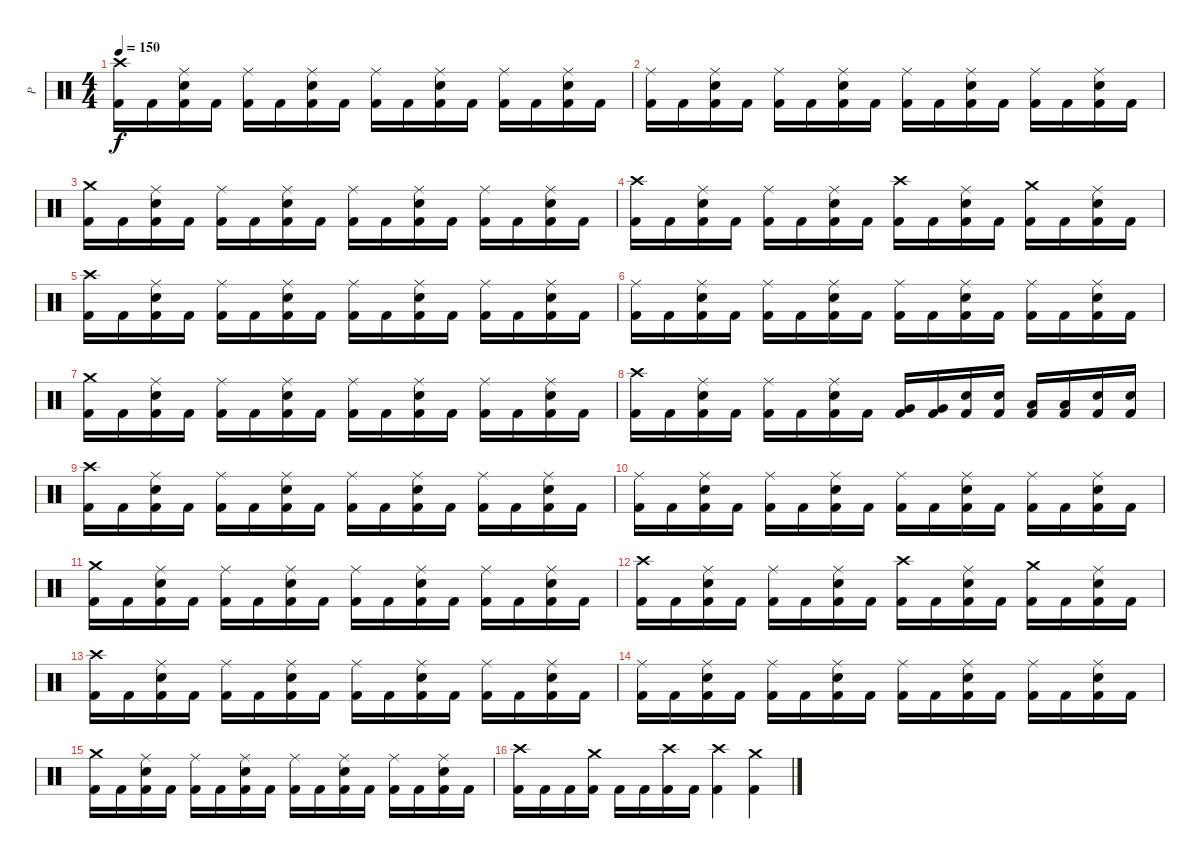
\track ("P" "P") {instrument percussion}
\staff {score}
\articulation defaults
\ts (4 4)
\tempo 150
\clef neutral
\ks c
("Crash high (hit)" "Kick (hit) 2").16{dy f} "Kick (hit) 2".16 ("Ride (middle)" "Electric Snare (hit)" "Kick (hit) 2").16 "Kick (hit) 2".16 ("Ride (middle)" "Kick (hit) 2").16 "Kick (hit) 2".16 ("Ride (middle)" "Electric Snare (hit)" "Kick (hit) 2").16 "Kick (hit) 2".16 ("Ride (middle)" "Kick (hit) 2").16 "Kick (hit) 2".16 ("Ride (middle)" "Electric Snare (hit)" "Kick (hit) 2").16 "Kick (hit) 2".16 ("Ride (middle)" "Kick (hit) 2").16 "Kick (hit) 2".16 ("Ride (middle)" "Electric Snare (hit)" "Kick (hit) 2").16 "Kick (hit) 2".16 |
("Ride (middle)" "Kick (hit) 2").16 "Kick (hit) 2".16 ("Ride (middle)" "Electric Snare (hit)" "Kick (hit) 2").16 "Kick (hit) 2".16 ("Ride (middle)" "Kick (hit) 2").16 "Kick (hit) 2".16 ("Ride (middle)" "Electric Snare (hit)" "Kick (hit) 2").16 "Kick (hit) 2".16 ("Ride (middle)" "Kick (hit) 2").16 "Kick (hit) 2".16 ("Ride (middle)" "Electric Snare (hit)" "Kick (hit) 2").16 "Kick (hit) 2".16 ("Ride (middle)" "Kick (hit) 2").16 "Kick (hit) 2".16 ("Ride (middle)" "Electric Snare (hit)" "Kick (hit) 2").16 "Kick (hit) 2".16 |
("Crash medium (hit)" "Kick (hit) 2").16 "Kick (hit) 2".16 ("Ride (middle)" "Electric Snare (hit)" "Kick (hit) 2").16 "Kick (hit) 2".16 ("Ride (middle)" "Kick (hit) 2").16 "Kick (hit) 2".16 ("Ride (middle)" "Electric Snare (hit)" "Kick (hit) 2").16 "Kick (hit) 2".16 ("Ride (middle)" "Kick (hit) 2").16 "Kick (hit) 2".16 ("Ride (middle)" "Electric Snare (hit)" "Kick (hit) 2").16 "Kick (hit) 2".16 ("Ride (middle)" "Kick (hit) 2").16 "Kick (hit) 2".16 ("Ride (middle)" "Electric Snare (hit)" "Kick (hit) 2").16 "Kick (hit) 2".16 |
("Crash high (hit)" "Kick (hit) 2").16 "Kick (hit) 2".16 ("Ride (middle)" "Electric Snare (hit)" "Kick (hit) 2").16 "Kick (hit) 2".16 ("Ride (middle)" "Kick (hit) 2").16 "Kick (hit) 2".16 ("Ride (middle)" "Electric Snare (hit)" "Kick (hit) 2").16 "Kick (hit) 2".16 ("Crash high (hit)" "Kick (hit) 2").16 "Kick (hit) 2".16 ("Ride (middle)" "Electric Snare (hit)" "Kick (hit) 2").16 "Kick (hit) 2".16 ("Crash medium (hit)" "Kick (hit) 2").16 "Kick (hit) 2".16 ("Ride (middle)" "Electric Snare (hit)" "Kick (hit) 2").16 "Kick (hit) 2".16 |
("Crash high (hit)" "Kick (hit) 2").16 "Kick (hit) 2".16 ("Ride (middle)" "Electric Snare (hit)" "Kick (hit) 2").16 "Kick (hit) 2".16 ("Ride (middle)" "Kick (hit) 2").16 "Kick (hit) 2".16 ("Ride (middle)" "Electric Snare (hit)" "Kick (hit) 2").16 "Kick (hit) 2".16 ("Ride (middle)" "Kick (hit) 2").16 "Kick (hit) 2".16 ("Ride (middle)" "Electric Snare (hit)" "Kick (hit) 2").16 "Kick (hit) 2".16 ("Ride (middle)" "Kick (hit) 2").16 "Kick (hit) 2".16 ("Ride (middle)" "Electric Snare (hit)" "Kick (hit) 2").16 "Kick (hit) 2".16 |
("Ride (middle)" "Kick (hit) 2").16 "Kick (hit) 2".16 ("Ride (middle)" "Electric Snare (hit)" "Kick (hit) 2").16 "Kick (hit) 2".16 ("Ride (middle)" "Kick (hit) 2").16 "Kick (hit) 2".16 ("Ride (middle)" "Electric Snare (hit)" "Kick (hit) 2").16 "Kick (hit) 2".16 ("Ride (middle)" "Kick (hit) 2").16 "Kick (hit) 2".16 ("Ride (middle)" "Electric Snare (hit)" "Kick (hit) 2").16 "Kick (hit) 2".16 ("Ride (middle)" "Kick (hit) 2").16 "Kick (hit) 2".16 ("Ride (middle)" "Electric Snare (hit)" "Kick (hit) 2").16 "Kick (hit) 2".16 |
("Crash medium (hit)" "Kick (hit) 2").16 "Kick (hit) 2".16 ("Ride (middle)" "Electric Snare (hit)" "Kick (hit) 2").16 "Kick (hit) 2".16 ("Ride (middle)" "Kick (hit) 2").16 "Kick (hit) 2".16 ("Ride (middle)" "Electric Snare (hit)" "Kick (hit) 2").16 "Kick (hit) 2".16 ("Ride (middle)" "Kick (hit) 2").16 "Kick (hit) 2".16 ("Ride (middle)" "Electric Snare (hit)" "Kick (hit) 2").16 "Kick (hit) 2".16 ("Ride (middle)" "Kick (hit) 2").16 "Kick (hit) 2".16 ("Ride (middle)" "Electric Snare (hit)" "Kick (hit) 2").16 "Kick (hit) 2".16 |
("Crash high (hit)" "Kick (hit) 2").16 "Kick (hit) 2".16 ("Ride (middle)" "Electric Snare (hit)" "Kick (hit) 2").16 "Kick (hit) 2".16 ("Ride (middle)" "Kick (hit) 2").16 "Kick (hit) 2".16 ("Ride (middle)" "Electric Snare (hit)" "Kick (hit) 2").16 "Kick (hit) 2".16 ("Very Low Tom (hit)" "Kick (hit) 2").16 ("Very Low Tom (hit)" "Kick (hit) 2").16 ("Electric Snare (hit)" "Kick (hit) 2").16 ("Electric Snare (hit)" "Kick (hit) 2").16 ("Low Tom (hit)" "Kick (hit) 2").16 ("Low Tom (hit)" "Kick (hit) 2").16 ("Electric Snare (hit)" "Kick (hit) 2").16 ("Electric Snare (hit)" "Kick (hit) 2").16 |
("Crash high (hit)" "Kick (hit) 2").16 "Kick (hit) 2".16 ("Ride (middle)" "Electric Snare (hit)" "Kick (hit) 2").16 "Kick (hit) 2".16 ("Ride (middle)" "Kick (hit) 2").16 "Kick (hit) 2".16 ("Ride (middle)" "Electric Snare (hit)" "Kick (hit) 2").16 "Kick (hit) 2".16 ("Ride (middle)" "Kick (hit) 2").16 "Kick (hit) 2".16 ("Ride (middle)" "Electric Snare (hit)" "Kick (hit) 2").16 "Kick (hit) 2".16 ("Ride (middle)" "Kick (hit) 2").16 "Kick (hit) 2".16 ("Ride (middle)" "Electric Snare (hit)" "Kick (hit) 2").16 "Kick (hit) 2".16 |
("Ride (middle)" "Kick (hit) 2").16 "Kick (hit) 2".16 ("Ride (middle)" "Electric Snare (hit)" "Kick (hit) 2").16 "Kick (hit) 2".16 ("Ride (middle)" "Kick (hit) 2").16 "Kick (hit) 2".16 ("Ride (middle)" "Electric Snare (hit)" "Kick (hit) 2").16 "Kick (hit) 2".16 ("Ride (middle)" "Kick (hit) 2").16 "Kick (hit) 2".16 ("Ride (middle)" "Electric Snare (hit)" "Kick (hit) 2").16 "Kick (hit) 2".16 ("Ride (middle)" "Kick (hit) 2").16 "Kick (hit) 2".16 ("Ride (middle)" "Electric Snare (hit)" "Kick (hit) 2").16 "Kick (hit) 2".16 |
("Crash medium (hit)" "Kick (hit) 2").16 "Kick (hit) 2".16 ("Ride (middle)" "Electric Snare (hit)" "Kick (hit) 2").16 "Kick (hit) 2".16 ("Ride (middle)" "Kick (hit) 2").16 "Kick (hit) 2".16 ("Ride (middle)" "Electric Snare (hit)" "Kick (hit) 2").16 "Kick (hit) 2".16 ("Ride (middle)" "Kick (hit) 2").16 "Kick (hit) 2".16 ("Ride (middle)" "Electric Snare (hit)" "Kick (hit) 2").16 "Kick (hit) 2".16 ("Ride (middle)" "Kick (hit) 2").16 "Kick (hit) 2".16 ("Ride (middle)" "Electric Snare (hit)" "Kick (hit) 2").16 "Kick (hit) 2".16 |
("Crash high (hit)" "Kick (hit) 2").16 "Kick (hit) 2".16 ("Ride (middle)" "Electric Snare (hit)" "Kick (hit) 2").16 "Kick (hit) 2".16 ("Ride (middle)" "Kick (hit) 2").16 "Kick (hit) 2".16 ("Ride (middle)" "Electric Snare (hit)" "Kick (hit) 2").16 "Kick (hit) 2".16 ("Crash high (hit)" "Kick (hit) 2").16 "Kick (hit) 2".16 ("Ride (middle)" "Electric Snare (hit)" "Kick (hit) 2").16 "Kick (hit) 2".16 ("Crash medium (hit)" "Kick (hit) 2").16 "Kick (hit) 2".16 ("Ride (middle)" "Electric Snare (hit)" "Kick (hit) 2").16 "Kick (hit) 2".16 |
("Crash high (hit)" "Kick (hit) 2").16 "Kick (hit) 2".16 ("Ride (middle)" "Electric Snare (hit)" "Kick (hit) 2").16 "Kick (hit) 2".16 ("Ride (middle)" "Kick (hit) 2").16 "Kick (hit) 2".16 ("Ride (middle)" "Electric Snare (hit)" "Kick (hit) 2").16 "Kick (hit) 2".16 ("Ride (middle)" "Kick (hit) 2").16 "Kick (hit) 2".16 ("Ride (middle)" "Electric Snare (hit)" "Kick (hit) 2").16 "Kick (hit) 2".16 ("Ride (middle)" "Kick (hit) 2").16 "Kick (hit) 2".16 ("Ride (middle)" "Electric Snare (hit)" "Kick (hit) 2").16 "Kick (hit) 2".16 |
("Ride (middle)" "Kick (hit) 2").16 "Kick (hit) 2".16 ("Ride (middle)" "Electric Snare (hit)" "Kick (hit) 2").16 "Kick (hit) 2".16 ("Ride (middle)" "Kick (hit) 2").16 "Kick (hit) 2".16 ("Ride (middle)" "Electric Snare (hit)" "Kick (hit) 2").16 "Kick (hit) 2".16 ("Ride (middle)" "Kick (hit) 2").16 "Kick (hit) 2".16 ("Ride (middle)" "Electric Snare (hit)" "Kick (hit) 2").16 "Kick (hit) 2".16 ("Ride (middle)" "Kick (hit) 2").16 "Kick (hit) 2".16 ("Ride (middle)" "Electric Snare (hit)" "Kick (hit) 2").16 "Kick (hit) 2".16 |
("Crash medium (hit)" "Kick (hit) 2").16 "Kick (hit) 2".16 ("Ride (middle)" "Electric Snare (hit)" "Kick (hit) 2").16 "Kick (hit) 2".16 ("Ride (middle)" "Kick (hit) 2").16 "Kick (hit) 2".16 ("Ride (middle)" "Electric Snare (hit)" "Kick (hit) 2").16 "Kick (hit) 2".16 ("Ride (middle)" "Kick (hit) 2").16 "Kick (hit) 2".16 ("Ride (middle)" "Electric Snare (hit)" "Kick (hit) 2").16 "Kick (hit) 2".16 ("Ride (middle)" "Kick (hit) 2").16 "Kick (hit) 2".16 ("Ride (middle)" "Electric Snare (hit)" "Kick (hit) 2").16 "Kick (hit) 2".16 |
("Crash high (hit)" "Kick (hit) 2").16 "Kick (hit) 2".16 "Kick (hit) 2".16 ("Crash medium (hit)" "Kick (hit) 2").16 "Kick (hit) 2".16 "Kick (hit) 2".16 ("Crash high (hit)" "Kick (hit) 2").16 "Kick (hit) 2".16 ("Crash high (hit)" "Kick (hit) 2").4 ("Crash medium (hit)" "Kick (hit) 2").4
